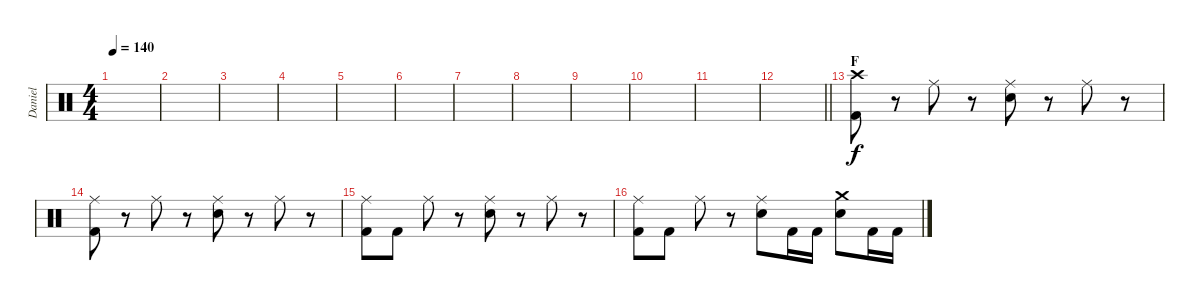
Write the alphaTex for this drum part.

\track ("Daniel" "Daniel") {instrument percussion}
\staff {score}
\articulation defaults
\ts (4 4)
\tempo 140
\clef neutral
\ks c
|
|
|
|
|
|
|
|
|
|
|
\barLineRight lightlight
|
\section ("" "F")
("Crash high (hit)" "Kick (hit) 2").8 r.8 "Ride (middle)".8 r.8 ("Ride (middle)" "Snare (hit) 2").8 r.8 "Ride (middle)".8 r.8 |
("Ride (middle)" "Kick (hit) 2").8 r.8 "Ride (middle)".8 r.8 ("Ride (middle)" "Snare (hit) 2").8 r.8 "Ride (middle)".8 r.8 |
("Ride (middle)" "Kick (hit) 2").8 "Kick (hit) 2".8 "Ride (middle)".8 r.8 ("Ride (middle)" "Snare (hit) 2").8 r.8 "Ride (middle)".8 r.8 |
("Ride (middle)" "Kick (hit) 2").8 "Kick (hit) 2".8 "Ride (middle)".8 r.8 ("Ride (middle)" "Snare (hit) 2").8 "Kick (hit) 2".16 "Kick (hit) 2".16 ("Crash medium (hit)" "Snare (hit) 2").8 "Kick (hit) 2".16 "Kick (hit) 2".16
